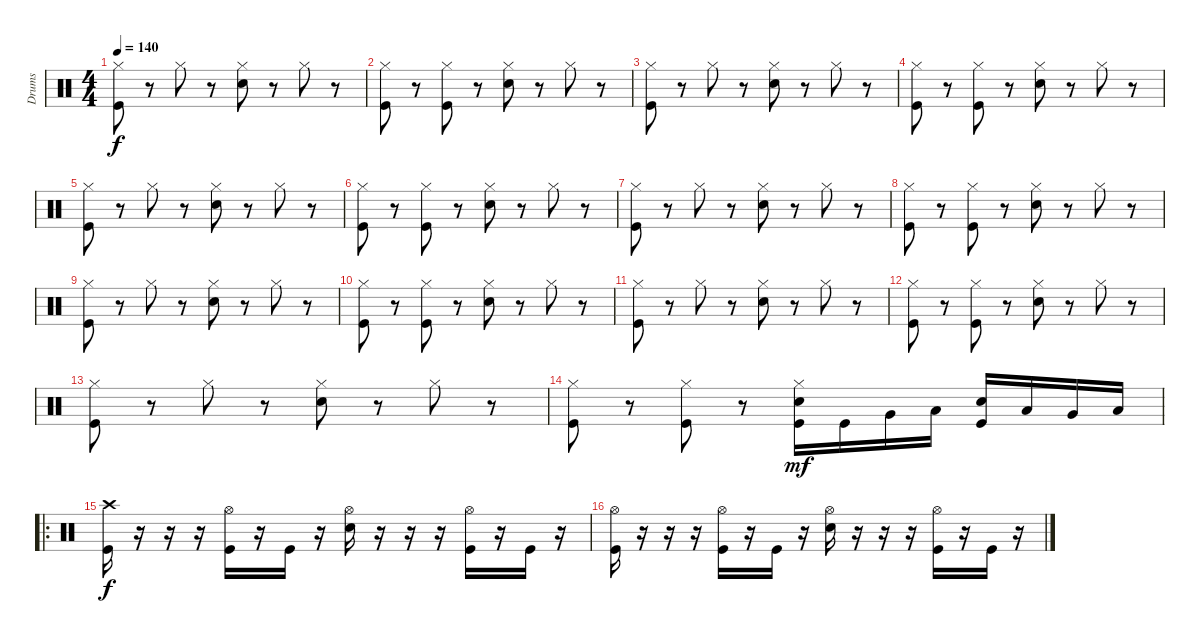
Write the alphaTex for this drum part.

\track ("Drums" "Drums") {instrument percussion}
\staff {score}
\articulation defaults
\ts (4 4)
\tempo 140
\clef neutral
\ks c
("Hi-Hat (closed)" "Kick (hit)").8{dy f} r.8 "Hi-Hat (closed)".8 r.8 ("Hi-Hat (closed)" "Snare (hit) 2").8 r.8 "Hi-Hat (closed)".8 r.8 |
("Hi-Hat (closed)" "Kick (hit)").8 r.8 ("Hi-Hat (closed)" "Kick (hit)").8 r.8 ("Hi-Hat (closed)" "Snare (hit) 2").8 r.8 "Hi-Hat (closed)".8 r.8 |
("Hi-Hat (closed)" "Kick (hit)").8 r.8 "Hi-Hat (closed)".8 r.8 ("Hi-Hat (closed)" "Snare (hit) 2").8 r.8 "Hi-Hat (closed)".8 r.8 |
("Hi-Hat (closed)" "Kick (hit)").8 r.8 ("Hi-Hat (closed)" "Kick (hit)").8 r.8 ("Hi-Hat (closed)" "Snare (hit) 2").8 r.8 "Hi-Hat (closed)".8 r.8 |
("Hi-Hat (closed)" "Kick (hit)").8 r.8 "Hi-Hat (closed)".8 r.8 ("Hi-Hat (closed)" "Snare (hit) 2").8 r.8 "Hi-Hat (closed)".8 r.8 |
("Hi-Hat (closed)" "Kick (hit)").8 r.8 ("Hi-Hat (closed)" "Kick (hit)").8 r.8 ("Hi-Hat (closed)" "Snare (hit) 2").8 r.8 "Hi-Hat (closed)".8 r.8 |
("Hi-Hat (closed)" "Kick (hit)").8 r.8 "Hi-Hat (closed)".8 r.8 ("Hi-Hat (closed)" "Snare (hit) 2").8 r.8 "Hi-Hat (closed)".8 r.8 |
("Hi-Hat (closed)" "Kick (hit)").8 r.8 ("Hi-Hat (closed)" "Kick (hit)").8 r.8 ("Hi-Hat (closed)" "Snare (hit) 2").8 r.8 "Hi-Hat (closed)".8 r.8 |
("Hi-Hat (closed)" "Kick (hit)").8 r.8 "Hi-Hat (closed)".8 r.8 ("Hi-Hat (closed)" "Snare (hit) 2").8 r.8 "Hi-Hat (closed)".8 r.8 |
("Hi-Hat (closed)" "Kick (hit)").8 r.8 ("Hi-Hat (closed)" "Kick (hit)").8 r.8 ("Hi-Hat (closed)" "Snare (hit) 2").8 r.8 "Hi-Hat (closed)".8 r.8 |
("Hi-Hat (closed)" "Kick (hit)").8 r.8 "Hi-Hat (closed)".8 r.8 ("Hi-Hat (closed)" "Snare (hit) 2").8 r.8 "Hi-Hat (closed)".8 r.8 |
("Hi-Hat (closed)" "Kick (hit)").8 r.8 ("Hi-Hat (closed)" "Kick (hit)").8 r.8 ("Hi-Hat (closed)" "Snare (hit) 2").8 r.8 "Hi-Hat (closed)".8 r.8 |
("Hi-Hat (closed)" "Kick (hit)").8 r.8 "Hi-Hat (closed)".8 r.8 ("Hi-Hat (closed)" "Snare (hit) 2").8 r.8 "Hi-Hat (closed)".8 r.8 |
("Hi-Hat (closed)" "Kick (hit)").8 r.8 ("Hi-Hat (closed)" "Kick (hit)").8 r.8 ("Hi-Hat (closed)" "Snare (hit) 2" "Kick (hit)").16{dy mf} "Kick (hit)".16 "Very Low Tom (hit)".16 "Low Floor Tom (hit)".16 ("Snare (hit) 2" "Kick (hit)").16 "Low Tom (hit)".16 "Very Low Tom (hit)".16 "Low Floor Tom (hit)".16 |
\ro
("Crash high (hit)" "Kick (hit)").16{dy f} r.16 r.16 r.16 ("Hi-Hat (open)" "Kick (hit)").16 r.16 "Kick (hit)".16 r.16 ("Hi-Hat (open)" "Snare (hit) 2").16 r.16 r.16 r.16 ("Hi-Hat (open)" "Kick (hit)").16 r.16 "Kick (hit)".16 r.16 |
("Hi-Hat (open)" "Kick (hit)").16 r.16 r.16 r.16 ("Hi-Hat (open)" "Kick (hit)").16 r.16 "Kick (hit)".16 r.16 ("Hi-Hat (open)" "Snare (hit) 2").16 r.16 r.16 r.16 ("Hi-Hat (open)" "Kick (hit)").16 r.16 "Kick (hit)".16 r.16
